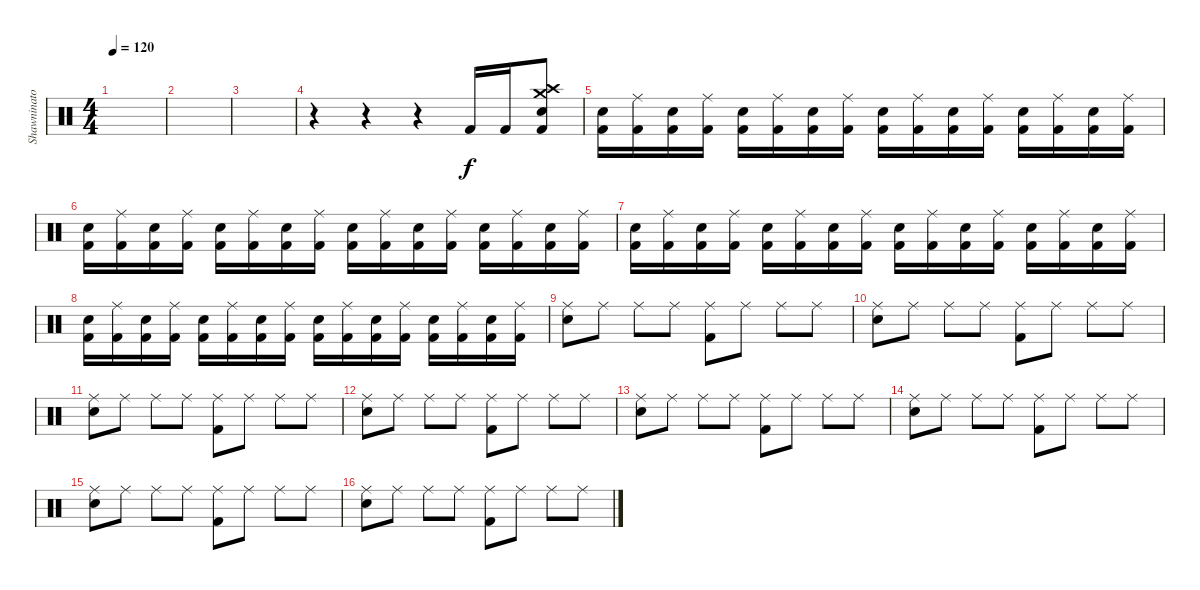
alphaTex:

\track ("Shawninator-Drums" "Shawninato") {instrument percussion}
\staff {score}
\articulation defaults
\ts (4 4)
\tempo 120
\clef neutral
\ks c
|
|
|
r.4 r.4 r.4 "Kick (hit) 2".16 "Kick (hit) 2".16 ("Crash high (hit)" "Crash medium (hit)" "Snare (hit) 2" "Kick (hit) 2").8 |
("Snare (hit) 2" "Kick (hit) 2").16 ("Ride (middle)" "Kick (hit) 2").16 ("Snare (hit) 2" "Kick (hit) 2").16 ("Ride (middle)" "Kick (hit) 2").16 ("Snare (hit) 2" "Kick (hit) 2").16 ("Ride (middle)" "Kick (hit) 2").16 ("Snare (hit) 2" "Kick (hit) 2").16 ("Ride (middle)" "Kick (hit) 2").16 ("Snare (hit) 2" "Kick (hit) 2").16 ("Ride (middle)" "Kick (hit) 2").16 ("Snare (hit) 2" "Kick (hit) 2").16 ("Ride (middle)" "Kick (hit) 2").16 ("Snare (hit) 2" "Kick (hit) 2").16 ("Ride (middle)" "Kick (hit) 2").16 ("Snare (hit) 2" "Kick (hit) 2").16 ("Ride (middle)" "Kick (hit) 2").16 |
("Snare (hit) 2" "Kick (hit) 2").16 ("Ride (middle)" "Kick (hit) 2").16 ("Snare (hit) 2" "Kick (hit) 2").16 ("Ride (middle)" "Kick (hit) 2").16 ("Snare (hit) 2" "Kick (hit) 2").16 ("Ride (middle)" "Kick (hit) 2").16 ("Snare (hit) 2" "Kick (hit) 2").16 ("Ride (middle)" "Kick (hit) 2").16 ("Snare (hit) 2" "Kick (hit) 2").16 ("Ride (middle)" "Kick (hit) 2").16 ("Snare (hit) 2" "Kick (hit) 2").16 ("Ride (middle)" "Kick (hit) 2").16 ("Snare (hit) 2" "Kick (hit) 2").16 ("Ride (middle)" "Kick (hit) 2").16 ("Snare (hit) 2" "Kick (hit) 2").16 ("Ride (middle)" "Kick (hit) 2").16 |
("Snare (hit) 2" "Kick (hit) 2").16 ("Ride (middle)" "Kick (hit) 2").16 ("Snare (hit) 2" "Kick (hit) 2").16 ("Ride (middle)" "Kick (hit) 2").16 ("Snare (hit) 2" "Kick (hit) 2").16 ("Ride (middle)" "Kick (hit) 2").16 ("Snare (hit) 2" "Kick (hit) 2").16 ("Ride (middle)" "Kick (hit) 2").16 ("Snare (hit) 2" "Kick (hit) 2").16 ("Ride (middle)" "Kick (hit) 2").16 ("Snare (hit) 2" "Kick (hit) 2").16 ("Ride (middle)" "Kick (hit) 2").16 ("Snare (hit) 2" "Kick (hit) 2").16 ("Ride (middle)" "Kick (hit) 2").16 ("Snare (hit) 2" "Kick (hit) 2").16 ("Ride (middle)" "Kick (hit) 2").16 |
("Snare (hit) 2" "Kick (hit) 2").16 ("Ride (middle)" "Kick (hit) 2").16 ("Snare (hit) 2" "Kick (hit) 2").16 ("Ride (middle)" "Kick (hit) 2").16 ("Snare (hit) 2" "Kick (hit) 2").16 ("Ride (middle)" "Kick (hit) 2").16 ("Snare (hit) 2" "Kick (hit) 2").16 ("Ride (middle)" "Kick (hit) 2").16 ("Snare (hit) 2" "Kick (hit) 2").16 ("Ride (middle)" "Kick (hit) 2").16 ("Snare (hit) 2" "Kick (hit) 2").16 ("Ride (middle)" "Kick (hit) 2").16 ("Snare (hit) 2" "Kick (hit) 2").16 ("Ride (middle)" "Kick (hit) 2").16 ("Snare (hit) 2" "Kick (hit) 2").16 ("Ride (middle)" "Kick (hit) 2").16 |
("Ride (middle)" "Snare (hit) 2").8 "Ride (middle)".8 "Ride (middle)".8 "Ride (middle)".8 ("Ride (middle)" "Kick (hit) 2").8 "Ride (middle)".8 "Ride (middle)".8 "Ride (middle)".8 |
("Ride (middle)" "Snare (hit) 2").8 "Ride (middle)".8 "Ride (middle)".8 "Ride (middle)".8 ("Ride (middle)" "Kick (hit) 2").8 "Ride (middle)".8 "Ride (middle)".8 "Ride (middle)".8 |
("Ride (middle)" "Snare (hit) 2").8 "Ride (middle)".8 "Ride (middle)".8 "Ride (middle)".8 ("Ride (middle)" "Kick (hit) 2").8 "Ride (middle)".8 "Ride (middle)".8 "Ride (middle)".8 |
("Ride (middle)" "Snare (hit) 2").8 "Ride (middle)".8 "Ride (middle)".8 "Ride (middle)".8 ("Ride (middle)" "Kick (hit) 2").8 "Ride (middle)".8 "Ride (middle)".8 "Ride (middle)".8 |
("Ride (middle)" "Snare (hit) 2").8 "Ride (middle)".8 "Ride (middle)".8 "Ride (middle)".8 ("Ride (middle)" "Kick (hit) 2").8 "Ride (middle)".8 "Ride (middle)".8 "Ride (middle)".8 |
("Ride (middle)" "Snare (hit) 2").8 "Ride (middle)".8 "Ride (middle)".8 "Ride (middle)".8 ("Ride (middle)" "Kick (hit) 2").8 "Ride (middle)".8 "Ride (middle)".8 "Ride (middle)".8 |
("Ride (middle)" "Snare (hit) 2").8 "Ride (middle)".8 "Ride (middle)".8 "Ride (middle)".8 ("Ride (middle)" "Kick (hit) 2").8 "Ride (middle)".8 "Ride (middle)".8 "Ride (middle)".8 |
("Ride (middle)" "Snare (hit) 2").8 "Ride (middle)".8 "Ride (middle)".8 "Ride (middle)".8 ("Ride (middle)" "Kick (hit) 2").8 "Ride (middle)".8 "Ride (middle)".8 "Ride (middle)".8
